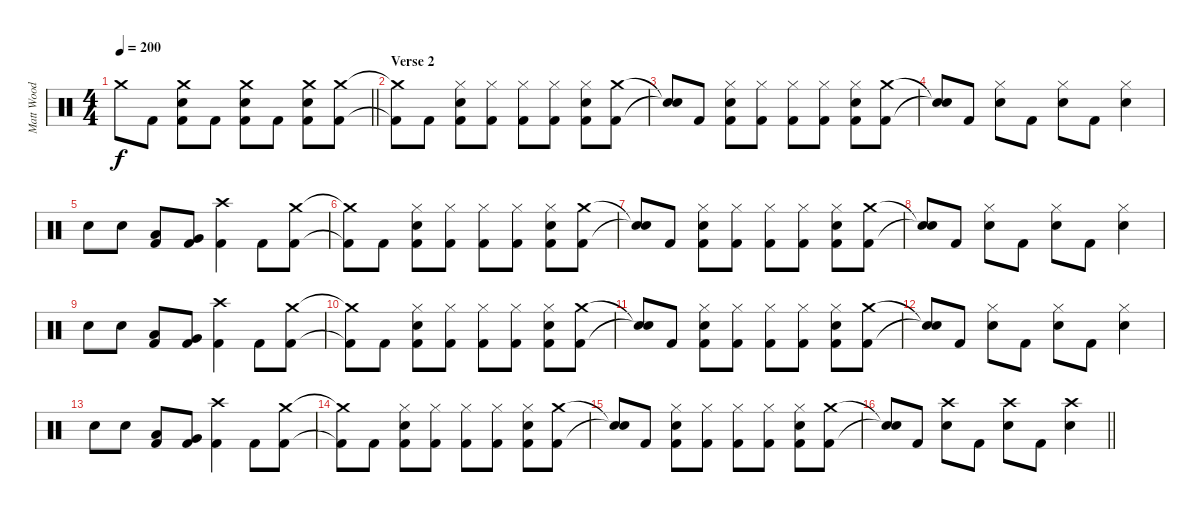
\track ("Matt Wood" "Matt Wood") {instrument percussion}
\staff {score}
\articulation defaults
\ts (4 4)
\tempo 200
\clef neutral
\barLineRight lightlight
\ks c "Crash medium (hit)".8{dy f} "Kick (hit) 2".8
("Crash medium (hit)" "Snare (hit) 2" "Kick (hit) 2").8 "Kick (hit) 2".8 ("Crash medium (hit)" "Snare (hit) 2" "Kick (hit) 2").8 "Kick (hit) 2".8 ("Crash medium (hit)" "Snare (hit) 2" "Kick (hit) 2").8 ("Crash medium (hit)" "Kick (hit) 2").8 |
\section ("" "Verse 2")
("Crash medium (hit)"{t} "Kick (hit) 2"{t}).8 "Kick (hit) 2".8 ("Hi-Hat (closed)" "Snare (hit) 2" "Kick (hit) 2").8 ("Hi-Hat (closed)" "Kick (hit) 2").8 ("Hi-Hat (closed)" "Kick (hit) 2").8 ("Hi-Hat (closed)" "Kick (hit) 2").8 ("Hi-Hat (closed)" "Snare (hit) 2" "Kick (hit) 2").8 ("Crash medium (hit)" "Kick (hit) 2").8 |
("Snare (hit)"{t} "Snare (hit)"{t}).8 "Kick (hit) 2".8 ("Hi-Hat (closed)" "Snare (hit) 2" "Kick (hit) 2").8 ("Hi-Hat (closed)" "Kick (hit) 2").8 ("Hi-Hat (closed)" "Kick (hit) 2").8 ("Hi-Hat (closed)" "Kick (hit) 2").8 ("Hi-Hat (closed)" "Snare (hit) 2" "Kick (hit) 2").8 ("Crash medium (hit)" "Kick (hit) 2").8 |
("Snare (hit)"{t} "Snare (hit)"{t}).8 "Kick (hit) 2".8 ("Hi-Hat (closed)" "Snare (hit) 2").8 "Kick (hit) 2".8 ("Hi-Hat (closed)" "Snare (hit) 2").8 "Kick (hit) 2".8 ("Hi-Hat (closed)" "Snare (hit) 2").4 |
"Snare (hit) 2".8 "Snare (hit) 2".8 ("Low Tom (hit)" "Kick (hit) 2").8 ("Very Low Tom (hit)" "Kick (hit) 2").8 ("Crash high (hit)" "Kick (hit) 2").4 "Kick (hit) 2".8 ("Crash medium (hit)" "Kick (hit) 2").8 |
("Crash medium (hit)"{t} "Kick (hit) 2"{t}).8 "Kick (hit) 2".8 ("Hi-Hat (closed)" "Snare (hit) 2" "Kick (hit) 2").8 ("Hi-Hat (closed)" "Kick (hit) 2").8 ("Hi-Hat (closed)" "Kick (hit) 2").8 ("Hi-Hat (closed)" "Kick (hit) 2").8 ("Hi-Hat (closed)" "Snare (hit) 2" "Kick (hit) 2").8 ("Crash medium (hit)" "Kick (hit) 2").8 |
("Snare (hit)"{t} "Snare (hit)"{t}).8 "Kick (hit) 2".8 ("Hi-Hat (closed)" "Snare (hit) 2" "Kick (hit) 2").8 ("Hi-Hat (closed)" "Kick (hit) 2").8 ("Hi-Hat (closed)" "Kick (hit) 2").8 ("Hi-Hat (closed)" "Kick (hit) 2").8 ("Hi-Hat (closed)" "Snare (hit) 2" "Kick (hit) 2").8 ("Crash medium (hit)" "Kick (hit) 2").8 |
("Snare (hit)"{t} "Snare (hit)"{t}).8 "Kick (hit) 2".8 ("Hi-Hat (closed)" "Snare (hit) 2").8 "Kick (hit) 2".8 ("Hi-Hat (closed)" "Snare (hit) 2").8 "Kick (hit) 2".8 ("Hi-Hat (closed)" "Snare (hit) 2").4 |
"Snare (hit) 2".8 "Snare (hit) 2".8 ("Low Tom (hit)" "Kick (hit) 2").8 ("Very Low Tom (hit)" "Kick (hit) 2").8 ("Crash high (hit)" "Kick (hit) 2").4 "Kick (hit) 2".8 ("Crash medium (hit)" "Kick (hit) 2").8 |
("Crash medium (hit)"{t} "Kick (hit) 2"{t}).8 "Kick (hit) 2".8 ("Hi-Hat (closed)" "Snare (hit) 2" "Kick (hit) 2").8 ("Hi-Hat (closed)" "Kick (hit) 2").8 ("Hi-Hat (closed)" "Kick (hit) 2").8 ("Hi-Hat (closed)" "Kick (hit) 2").8 ("Hi-Hat (closed)" "Snare (hit) 2" "Kick (hit) 2").8 ("Crash medium (hit)" "Kick (hit) 2").8 |
("Snare (hit)"{t} "Snare (hit)"{t}).8 "Kick (hit) 2".8 ("Hi-Hat (closed)" "Snare (hit) 2" "Kick (hit) 2").8 ("Hi-Hat (closed)" "Kick (hit) 2").8 ("Hi-Hat (closed)" "Kick (hit) 2").8 ("Hi-Hat (closed)" "Kick (hit) 2").8 ("Hi-Hat (closed)" "Snare (hit) 2" "Kick (hit) 2").8 ("Crash medium (hit)" "Kick (hit) 2").8 |
("Snare (hit)"{t} "Snare (hit)"{t}).8 "Kick (hit) 2".8 ("Hi-Hat (closed)" "Snare (hit) 2").8 "Kick (hit) 2".8 ("Hi-Hat (closed)" "Snare (hit) 2").8 "Kick (hit) 2".8 ("Hi-Hat (closed)" "Snare (hit) 2").4 |
"Snare (hit) 2".8 "Snare (hit) 2".8 ("Low Tom (hit)" "Kick (hit) 2").8 ("Very Low Tom (hit)" "Kick (hit) 2").8 ("Crash high (hit)" "Kick (hit) 2").4 "Kick (hit) 2".8 ("Crash medium (hit)" "Kick (hit) 2").8 |
("Crash medium (hit)"{t} "Kick (hit) 2"{t}).8 "Kick (hit) 2".8 ("Hi-Hat (closed)" "Snare (hit) 2" "Kick (hit) 2").8 ("Hi-Hat (closed)" "Kick (hit) 2").8 ("Hi-Hat (closed)" "Kick (hit) 2").8 ("Hi-Hat (closed)" "Kick (hit) 2").8 ("Hi-Hat (closed)" "Snare (hit) 2" "Kick (hit) 2").8 ("Crash medium (hit)" "Kick (hit) 2").8 |
("Snare (hit)"{t} "Snare (hit)"{t}).8 "Kick (hit) 2".8 ("Hi-Hat (closed)" "Snare (hit) 2" "Kick (hit) 2").8 ("Hi-Hat (closed)" "Kick (hit) 2").8 ("Hi-Hat (closed)" "Kick (hit) 2").8 ("Hi-Hat (closed)" "Kick (hit) 2").8 ("Hi-Hat (closed)" "Snare (hit) 2" "Kick (hit) 2").8 ("Crash medium (hit)" "Kick (hit) 2").8 |
\barLineRight lightlight
("Snare (hit)"{t} "Snare (hit)"{t}).8 "Kick (hit) 2".8 ("Crash high (hit)" "Snare (hit) 2").8 "Kick (hit) 2".8 ("Crash high (hit)" "Snare (hit) 2").8 "Kick (hit) 2".8 ("Crash high (hit)" "Snare (hit) 2").4
